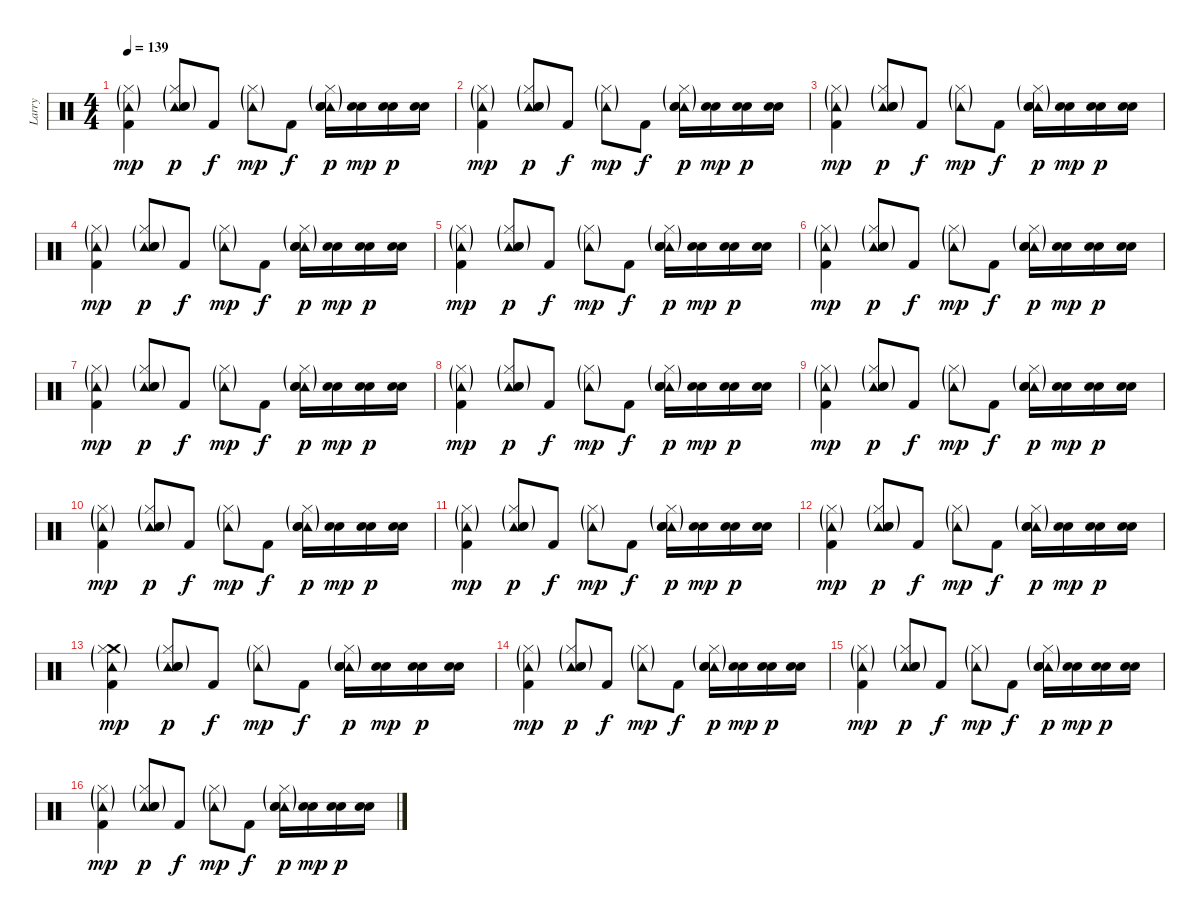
\track ("Larry" "Larry") {instrument percussion}
\staff {score}
\articulation defaults
\ts (4 4)
\tempo 139
\clef neutral
\ks c
("Tambourine (hit)"{g} "Kick (hit) 2" "Hi-Hat (closed)"{g}).4{dy mp} ("Tambourine (hit)"{g} "Snare (hit) 2" "Electric Snare (hit)" "Hi-Hat (closed)"{g}).8{dy p} "Kick (hit) 2".8{dy f} ("Tambourine (hit)"{g} "Hi-Hat (closed)"{g}).8{dy mp} "Kick (hit) 2".8{dy f} ("Tambourine (hit)"{g} "Snare (hit) 2" "Electric Snare (hit)" "Hi-Hat (closed)"{g}).16{dy p} ("Snare (hit) 2" "Electric Snare (hit)").16{dy mp} ("Snare (hit) 2" "Electric Snare (hit)").16{dy p} ("Snare (hit) 2" "Electric Snare (hit)").16 |
("Tambourine (hit)"{g} "Kick (hit) 2" "Hi-Hat (closed)"{g}).4{dy mp} ("Tambourine (hit)"{g} "Snare (hit) 2" "Electric Snare (hit)" "Hi-Hat (closed)"{g}).8{dy p} "Kick (hit) 2".8{dy f} ("Tambourine (hit)"{g} "Hi-Hat (closed)"{g}).8{dy mp} "Kick (hit) 2".8{dy f} ("Tambourine (hit)"{g} "Snare (hit) 2" "Electric Snare (hit)" "Hi-Hat (closed)"{g}).16{dy p} ("Snare (hit) 2" "Electric Snare (hit)").16{dy mp} ("Snare (hit) 2" "Electric Snare (hit)").16{dy p} ("Snare (hit) 2" "Electric Snare (hit)").16 |
("Tambourine (hit)"{g} "Kick (hit) 2" "Hi-Hat (closed)"{g}).4{dy mp} ("Tambourine (hit)"{g} "Snare (hit) 2" "Electric Snare (hit)" "Hi-Hat (closed)"{g}).8{dy p} "Kick (hit) 2".8{dy f} ("Tambourine (hit)"{g} "Hi-Hat (closed)"{g}).8{dy mp} "Kick (hit) 2".8{dy f} ("Tambourine (hit)"{g} "Snare (hit) 2" "Electric Snare (hit)" "Hi-Hat (closed)"{g}).16{dy p} ("Snare (hit) 2" "Electric Snare (hit)").16{dy mp} ("Snare (hit) 2" "Electric Snare (hit)").16{dy p} ("Snare (hit) 2" "Electric Snare (hit)").16 |
("Tambourine (hit)"{g} "Kick (hit) 2" "Hi-Hat (closed)"{g}).4{dy mp} ("Tambourine (hit)"{g} "Snare (hit) 2" "Electric Snare (hit)" "Hi-Hat (closed)"{g}).8{dy p} "Kick (hit) 2".8{dy f} ("Tambourine (hit)"{g} "Hi-Hat (closed)"{g}).8{dy mp} "Kick (hit) 2".8{dy f} ("Tambourine (hit)"{g} "Snare (hit) 2" "Electric Snare (hit)" "Hi-Hat (closed)"{g}).16{dy p} ("Snare (hit) 2" "Electric Snare (hit)").16{dy mp} ("Snare (hit) 2" "Electric Snare (hit)").16{dy p} ("Snare (hit) 2" "Electric Snare (hit)").16 |
("Tambourine (hit)"{g} "Kick (hit) 2" "Hi-Hat (closed)"{g}).4{dy mp} ("Tambourine (hit)"{g} "Snare (hit) 2" "Electric Snare (hit)" "Hi-Hat (closed)"{g}).8{dy p} "Kick (hit) 2".8{dy f} ("Tambourine (hit)"{g} "Hi-Hat (closed)"{g}).8{dy mp} "Kick (hit) 2".8{dy f} ("Tambourine (hit)"{g} "Snare (hit) 2" "Electric Snare (hit)" "Hi-Hat (closed)"{g}).16{dy p} ("Snare (hit) 2" "Electric Snare (hit)").16{dy mp} ("Snare (hit) 2" "Electric Snare (hit)").16{dy p} ("Snare (hit) 2" "Electric Snare (hit)").16 |
("Tambourine (hit)"{g} "Kick (hit) 2" "Hi-Hat (closed)"{g}).4{dy mp} ("Tambourine (hit)"{g} "Snare (hit) 2" "Electric Snare (hit)" "Hi-Hat (closed)"{g}).8{dy p} "Kick (hit) 2".8{dy f} ("Tambourine (hit)"{g} "Hi-Hat (closed)"{g}).8{dy mp} "Kick (hit) 2".8{dy f} ("Tambourine (hit)"{g} "Snare (hit) 2" "Electric Snare (hit)" "Hi-Hat (closed)"{g}).16{dy p} ("Snare (hit) 2" "Electric Snare (hit)").16{dy mp} ("Snare (hit) 2" "Electric Snare (hit)").16{dy p} ("Snare (hit) 2" "Electric Snare (hit)").16 |
("Tambourine (hit)"{g} "Kick (hit) 2" "Hi-Hat (closed)"{g}).4{dy mp} ("Tambourine (hit)"{g} "Snare (hit) 2" "Electric Snare (hit)" "Hi-Hat (closed)"{g}).8{dy p} "Kick (hit) 2".8{dy f} ("Tambourine (hit)"{g} "Hi-Hat (closed)"{g}).8{dy mp} "Kick (hit) 2".8{dy f} ("Tambourine (hit)"{g} "Snare (hit) 2" "Electric Snare (hit)" "Hi-Hat (closed)"{g}).16{dy p} ("Snare (hit) 2" "Electric Snare (hit)").16{dy mp} ("Snare (hit) 2" "Electric Snare (hit)").16{dy p} ("Snare (hit) 2" "Electric Snare (hit)").16 |
("Tambourine (hit)"{g} "Kick (hit) 2" "Hi-Hat (closed)"{g}).4{dy mp} ("Tambourine (hit)"{g} "Snare (hit) 2" "Electric Snare (hit)" "Hi-Hat (closed)"{g}).8{dy p} "Kick (hit) 2".8{dy f} ("Tambourine (hit)"{g} "Hi-Hat (closed)"{g}).8{dy mp} "Kick (hit) 2".8{dy f} ("Tambourine (hit)"{g} "Snare (hit) 2" "Electric Snare (hit)" "Hi-Hat (closed)"{g}).16{dy p} ("Snare (hit) 2" "Electric Snare (hit)").16{dy mp} ("Snare (hit) 2" "Electric Snare (hit)").16{dy p} ("Snare (hit) 2" "Electric Snare (hit)").16 |
("Tambourine (hit)"{g} "Kick (hit) 2" "Hi-Hat (closed)"{g}).4{dy mp} ("Tambourine (hit)"{g} "Snare (hit) 2" "Electric Snare (hit)" "Hi-Hat (closed)"{g}).8{dy p} "Kick (hit) 2".8{dy f} ("Tambourine (hit)"{g} "Hi-Hat (closed)"{g}).8{dy mp} "Kick (hit) 2".8{dy f} ("Tambourine (hit)"{g} "Snare (hit) 2" "Electric Snare (hit)" "Hi-Hat (closed)"{g}).16{dy p} ("Snare (hit) 2" "Electric Snare (hit)").16{dy mp} ("Snare (hit) 2" "Electric Snare (hit)").16{dy p} ("Snare (hit) 2" "Electric Snare (hit)").16 |
("Tambourine (hit)"{g} "Kick (hit) 2" "Hi-Hat (closed)"{g}).4{dy mp} ("Tambourine (hit)"{g} "Snare (hit) 2" "Electric Snare (hit)" "Hi-Hat (closed)"{g}).8{dy p} "Kick (hit) 2".8{dy f} ("Tambourine (hit)"{g} "Hi-Hat (closed)"{g}).8{dy mp} "Kick (hit) 2".8{dy f} ("Tambourine (hit)"{g} "Snare (hit) 2" "Electric Snare (hit)" "Hi-Hat (closed)"{g}).16{dy p} ("Snare (hit) 2" "Electric Snare (hit)").16{dy mp} ("Snare (hit) 2" "Electric Snare (hit)").16{dy p} ("Snare (hit) 2" "Electric Snare (hit)").16 |
("Tambourine (hit)"{g} "Kick (hit) 2" "Hi-Hat (closed)"{g}).4{dy mp} ("Tambourine (hit)"{g} "Snare (hit) 2" "Electric Snare (hit)" "Hi-Hat (closed)"{g}).8{dy p} "Kick (hit) 2".8{dy f} ("Tambourine (hit)"{g} "Hi-Hat (closed)"{g}).8{dy mp} "Kick (hit) 2".8{dy f} ("Tambourine (hit)"{g} "Snare (hit) 2" "Electric Snare (hit)" "Hi-Hat (closed)"{g}).16{dy p} ("Snare (hit) 2" "Electric Snare (hit)").16{dy mp} ("Snare (hit) 2" "Electric Snare (hit)").16{dy p} ("Snare (hit) 2" "Electric Snare (hit)").16 |
("Tambourine (hit)"{g} "Kick (hit) 2" "Hi-Hat (closed)"{g}).4{dy mp} ("Tambourine (hit)"{g} "Snare (hit) 2" "Electric Snare (hit)" "Hi-Hat (closed)"{g}).8{dy p} "Kick (hit) 2".8{dy f} ("Tambourine (hit)"{g} "Hi-Hat (closed)"{g}).8{dy mp} "Kick (hit) 2".8{dy f} ("Tambourine (hit)"{g} "Snare (hit) 2" "Electric Snare (hit)" "Hi-Hat (closed)"{g}).16{dy p} ("Snare (hit) 2" "Electric Snare (hit)").16{dy mp} ("Snare (hit) 2" "Electric Snare (hit)").16{dy p} ("Snare (hit) 2" "Electric Snare (hit)").16 |
("Crash medium (hit)" "Tambourine (hit)"{g} "Kick (hit) 2" "Hi-Hat (closed)"{g}).4{dy mp} ("Tambourine (hit)"{g} "Snare (hit) 2" "Electric Snare (hit)" "Hi-Hat (closed)"{g}).8{dy p} "Kick (hit) 2".8{dy f} ("Tambourine (hit)"{g} "Hi-Hat (closed)"{g}).8{dy mp} "Kick (hit) 2".8{dy f} ("Tambourine (hit)"{g} "Snare (hit) 2" "Electric Snare (hit)" "Hi-Hat (closed)"{g}).16{dy p} ("Snare (hit) 2" "Electric Snare (hit)").16{dy mp} ("Snare (hit) 2" "Electric Snare (hit)").16{dy p} ("Snare (hit) 2" "Electric Snare (hit)").16 |
("Tambourine (hit)"{g} "Kick (hit) 2" "Hi-Hat (closed)"{g}).4{dy mp} ("Tambourine (hit)"{g} "Snare (hit) 2" "Electric Snare (hit)" "Hi-Hat (closed)"{g}).8{dy p} "Kick (hit) 2".8{dy f} ("Tambourine (hit)"{g} "Hi-Hat (closed)"{g}).8{dy mp} "Kick (hit) 2".8{dy f} ("Tambourine (hit)"{g} "Snare (hit) 2" "Electric Snare (hit)" "Hi-Hat (closed)"{g}).16{dy p} ("Snare (hit) 2" "Electric Snare (hit)").16{dy mp} ("Snare (hit) 2" "Electric Snare (hit)").16{dy p} ("Snare (hit) 2" "Electric Snare (hit)").16 |
("Tambourine (hit)"{g} "Kick (hit) 2" "Hi-Hat (closed)"{g}).4{dy mp} ("Tambourine (hit)"{g} "Snare (hit) 2" "Electric Snare (hit)" "Hi-Hat (closed)"{g}).8{dy p} "Kick (hit) 2".8{dy f} ("Tambourine (hit)"{g} "Hi-Hat (closed)"{g}).8{dy mp} "Kick (hit) 2".8{dy f} ("Tambourine (hit)"{g} "Snare (hit) 2" "Electric Snare (hit)" "Hi-Hat (closed)"{g}).16{dy p} ("Snare (hit) 2" "Electric Snare (hit)").16{dy mp} ("Snare (hit) 2" "Electric Snare (hit)").16{dy p} ("Snare (hit) 2" "Electric Snare (hit)").16 |
("Tambourine (hit)"{g} "Kick (hit) 2" "Hi-Hat (closed)"{g}).4{dy mp} ("Tambourine (hit)"{g} "Snare (hit) 2" "Electric Snare (hit)" "Hi-Hat (closed)"{g}).8{dy p} "Kick (hit) 2".8{dy f} ("Tambourine (hit)"{g} "Hi-Hat (closed)"{g}).8{dy mp} "Kick (hit) 2".8{dy f} ("Tambourine (hit)"{g} "Snare (hit) 2" "Electric Snare (hit)" "Hi-Hat (closed)"{g}).16{dy p} ("Snare (hit) 2" "Electric Snare (hit)").16{dy mp} ("Snare (hit) 2" "Electric Snare (hit)").16{dy p} ("Snare (hit) 2" "Electric Snare (hit)").16
